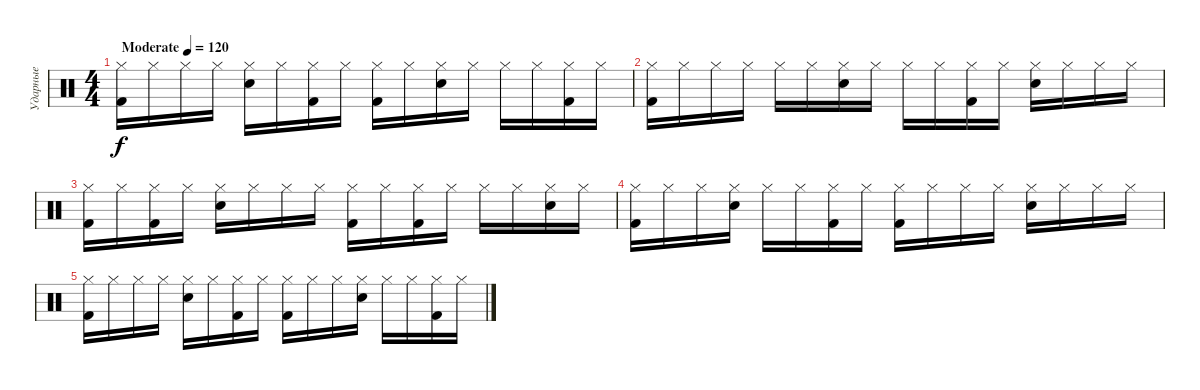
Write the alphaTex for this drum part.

\track ("Ударные" "Ударные") {instrument percussion}
\staff {score}
\articulation defaults
\ts (4 4)
\tempo (120 "Moderate")
\clef neutral
\ks c
("Hi-Hat (closed)" "Kick (hit) 2").16{dy f} "Hi-Hat (closed)".16 "Hi-Hat (closed)".16 "Hi-Hat (closed)".16 ("Hi-Hat (closed)" "Electric Snare (hit)").16 "Hi-Hat (closed)".16 ("Hi-Hat (closed)" "Kick (hit) 2").16 "Hi-Hat (closed)".16 ("Hi-Hat (closed)" "Kick (hit) 2").16 "Hi-Hat (closed)".16 ("Hi-Hat (closed)" "Electric Snare (hit)").16 "Hi-Hat (closed)".16 "Hi-Hat (closed)".16 "Hi-Hat (closed)".16 ("Hi-Hat (closed)" "Kick (hit) 2").16 "Hi-Hat (closed)".16 |
("Hi-Hat (closed)" "Kick (hit) 2").16 "Hi-Hat (closed)".16 "Hi-Hat (closed)".16 "Hi-Hat (closed)".16 "Hi-Hat (closed)".16 "Hi-Hat (closed)".16 ("Hi-Hat (closed)" "Electric Snare (hit)").16 "Hi-Hat (closed)".16 "Hi-Hat (closed)".16 "Hi-Hat (closed)".16 ("Hi-Hat (closed)" "Kick (hit) 2").16 "Hi-Hat (closed)".16 ("Hi-Hat (closed)" "Electric Snare (hit)").16 "Hi-Hat (closed)".16 "Hi-Hat (closed)".16 "Hi-Hat (closed)".16 |
("Hi-Hat (closed)" "Kick (hit) 2").16 "Hi-Hat (closed)".16 ("Hi-Hat (closed)" "Kick (hit) 2").16 "Hi-Hat (closed)".16 ("Hi-Hat (closed)" "Electric Snare (hit)").16 "Hi-Hat (closed)".16 "Hi-Hat (closed)".16 "Hi-Hat (closed)".16 ("Hi-Hat (closed)" "Kick (hit) 2").16 "Hi-Hat (closed)".16 ("Hi-Hat (closed)" "Kick (hit) 2").16 "Hi-Hat (closed)".16 "Hi-Hat (closed)".16 "Hi-Hat (closed)".16 ("Hi-Hat (closed)" "Electric Snare (hit)").16 "Hi-Hat (closed)".16 |
("Hi-Hat (closed)" "Kick (hit) 2").16 "Hi-Hat (closed)".16 "Hi-Hat (closed)".16 ("Hi-Hat (closed)" "Electric Snare (hit)").16 "Hi-Hat (closed)".16 "Hi-Hat (closed)".16 ("Hi-Hat (closed)" "Kick (hit) 2").16 "Hi-Hat (closed)".16 ("Hi-Hat (closed)" "Kick (hit) 2").16 "Hi-Hat (closed)".16 "Hi-Hat (closed)".16 "Hi-Hat (closed)".16 ("Hi-Hat (closed)" "Electric Snare (hit)").16 "Hi-Hat (closed)".16 "Hi-Hat (closed)".16 "Hi-Hat (closed)".16 |
("Hi-Hat (closed)" "Kick (hit) 2").16 "Hi-Hat (closed)".16 "Hi-Hat (closed)".16 "Hi-Hat (closed)".16 ("Hi-Hat (closed)" "Electric Snare (hit)").16 "Hi-Hat (closed)".16 ("Hi-Hat (closed)" "Kick (hit) 2").16 "Hi-Hat (closed)".16 ("Hi-Hat (closed)" "Kick (hit) 2").16 "Hi-Hat (closed)".16 "Hi-Hat (closed)".16 ("Hi-Hat (closed)" "Electric Snare (hit)").16 "Hi-Hat (closed)".16 "Hi-Hat (closed)".16 ("Hi-Hat (closed)" "Kick (hit) 2").16 "Hi-Hat (closed)".16
